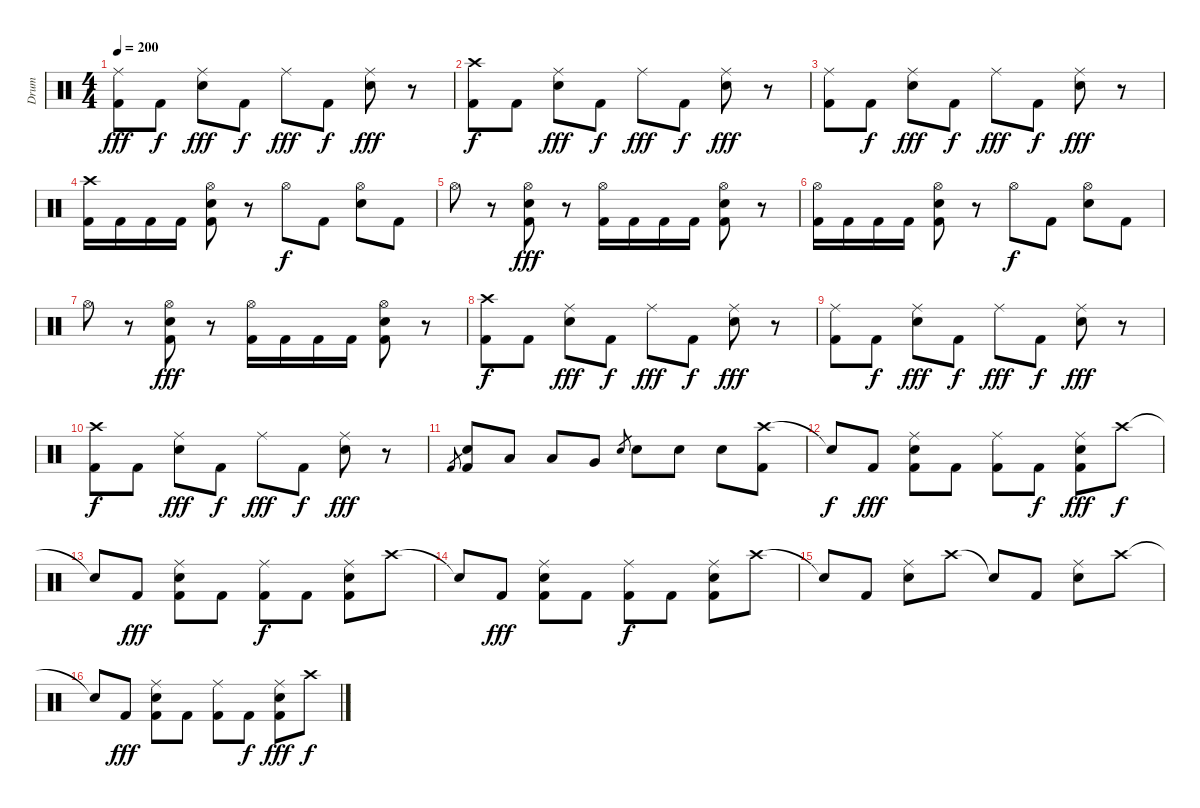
\track ("Drum" "Drum") {instrument percussion}
\staff {score}
\articulation defaults
\ts (4 4)
\tempo 200
\clef neutral
\ks c
("Ride (middle)" "Kick (hit) 2").8{dy fff} "Kick (hit) 2".8{dy f} ("Ride (middle)" "Electric Snare (hit)").8{dy fff} "Kick (hit) 2".8{dy f} "Ride (middle)".8{dy fff} "Kick (hit) 2".8{dy f} ("Ride (middle)" "Electric Snare (hit)").8{dy fff} r.8 |
("Crash high (hit)" "Kick (hit) 2").8{dy f} "Kick (hit) 2".8 ("Ride (middle)" "Electric Snare (hit)").8{dy fff} "Kick (hit) 2".8{dy f} "Ride (middle)".8{dy fff} "Kick (hit) 2".8{dy f} ("Ride (middle)" "Electric Snare (hit)").8{dy fff} r.8 |
("Ride (middle)" "Kick (hit) 2").8 "Kick (hit) 2".8{dy f} ("Ride (middle)" "Electric Snare (hit)").8{dy fff} "Kick (hit) 2".8{dy f} "Ride (middle)".8{dy fff} "Kick (hit) 2".8{dy f} ("Ride (middle)" "Electric Snare (hit)").8{dy fff} r.8 |
("Crash high (hit)" "Kick (hit) 2").16 "Kick (hit) 2".16 "Kick (hit) 2".16 "Kick (hit) 2".16 ("Hi-Hat (open)" "Electric Snare (hit)" "Kick (hit) 2").8 r.8 "Hi-Hat (open)".8{dy f} "Kick (hit) 2".8 ("Hi-Hat (open)" "Electric Snare (hit)").8 "Kick (hit) 2".8 |
"Hi-Hat (open)".8 r.8 ("Hi-Hat (open)" "Electric Snare (hit)" "Kick (hit) 2").8{dy fff} r.8 ("Hi-Hat (open)" "Kick (hit) 2").16 "Kick (hit) 2".16 "Kick (hit) 2".16 "Kick (hit) 2".16 ("Hi-Hat (open)" "Electric Snare (hit)" "Kick (hit) 2").8 r.8 |
("Hi-Hat (open)" "Kick (hit) 2").16 "Kick (hit) 2".16 "Kick (hit) 2".16 "Kick (hit) 2".16 ("Hi-Hat (open)" "Electric Snare (hit)" "Kick (hit) 2").8 r.8 "Hi-Hat (open)".8{dy f} "Kick (hit) 2".8 ("Hi-Hat (open)" "Electric Snare (hit)").8 "Kick (hit) 2".8 |
"Hi-Hat (open)".8 r.8 ("Hi-Hat (open)" "Electric Snare (hit)" "Kick (hit) 2").8{dy fff} r.8 ("Hi-Hat (open)" "Kick (hit) 2").16 "Kick (hit) 2".16 "Kick (hit) 2".16 "Kick (hit) 2".16 ("Hi-Hat (open)" "Electric Snare (hit)" "Kick (hit) 2").8 r.8 |
("Crash high (hit)" "Kick (hit) 2").8{dy f} "Kick (hit) 2".8 ("Ride (middle)" "Electric Snare (hit)").8{dy fff} "Kick (hit) 2".8{dy f} "Ride (middle)".8{dy fff} "Kick (hit) 2".8{dy f} ("Ride (middle)" "Electric Snare (hit)").8{dy fff} r.8 |
("Ride (middle)" "Kick (hit) 2").8 "Kick (hit) 2".8{dy f} ("Ride (middle)" "Electric Snare (hit)").8{dy fff} "Kick (hit) 2".8{dy f} "Ride (middle)".8{dy fff} "Kick (hit) 2".8{dy f} ("Ride (middle)" "Electric Snare (hit)").8{dy fff} r.8 |
("Crash high (hit)" "Kick (hit) 2").8{dy f} "Kick (hit) 2".8 ("Ride (middle)" "Electric Snare (hit)").8{dy fff} "Kick (hit) 2".8{dy f} "Ride (middle)".8{dy fff} "Kick (hit) 2".8{dy f} ("Ride (middle)" "Electric Snare (hit)").8{dy fff} r.8 |
"Kick (hit) 2".8{gr} ("Electric Snare (hit)" "Kick (hit) 2").8 "Low Tom (hit)".8 "Low Tom (hit)".8 "Very Low Tom (hit)".8 "Electric Snare (hit)".8{gr} "Electric Snare (hit)".8 "Electric Snare (hit)".8 "Electric Snare (hit)".8 ("Crash high (hit)" "Kick (hit) 2").8 |
"Snare (hit)"{t}.8{dy f} "Kick (hit) 2".8{dy fff} ("Ride (middle)" "Electric Snare (hit)" "Kick (hit) 2").8 "Kick (hit) 2".8 ("Ride (middle)" "Kick (hit) 2").8 "Kick (hit) 2".8{dy f} ("Ride (middle)" "Electric Snare (hit)" "Kick (hit) 2").8{dy fff} "Crash high (hit)".8{dy f} |
"Snare (hit)"{t}.8 "Kick (hit) 2".8{dy fff} ("Ride (middle)" "Electric Snare (hit)" "Kick (hit) 2").8 "Kick (hit) 2".8 ("Ride (middle)" "Kick (hit) 2").8{dy f} "Kick (hit) 2".8 ("Ride (middle)" "Electric Snare (hit)" "Kick (hit) 2").8 "Crash high (hit)".8 |
"Snare (hit)"{t}.8 "Kick (hit) 2".8{dy fff} ("Ride (middle)" "Electric Snare (hit)" "Kick (hit) 2").8 "Kick (hit) 2".8 ("Ride (middle)" "Kick (hit) 2").8{dy f} "Kick (hit) 2".8 ("Ride (middle)" "Electric Snare (hit)" "Kick (hit) 2").8 "Crash high (hit)".8 |
"Snare (hit)"{t}.8 "Kick (hit) 2".8 ("Ride (middle)" "Electric Snare (hit)").8 "Crash high (hit)".8 "Snare (hit)"{t}.8 "Kick (hit) 2".8 ("Ride (middle)" "Electric Snare (hit)").8 "Crash high (hit)".8 |
"Snare (hit)"{t}.8 "Kick (hit) 2".8{dy fff} ("Ride (middle)" "Electric Snare (hit)" "Kick (hit) 2").8 "Kick (hit) 2".8 ("Ride (middle)" "Kick (hit) 2").8 "Kick (hit) 2".8{dy f} ("Ride (middle)" "Electric Snare (hit)" "Kick (hit) 2").8{dy fff} "Crash high (hit)".8{dy f}
